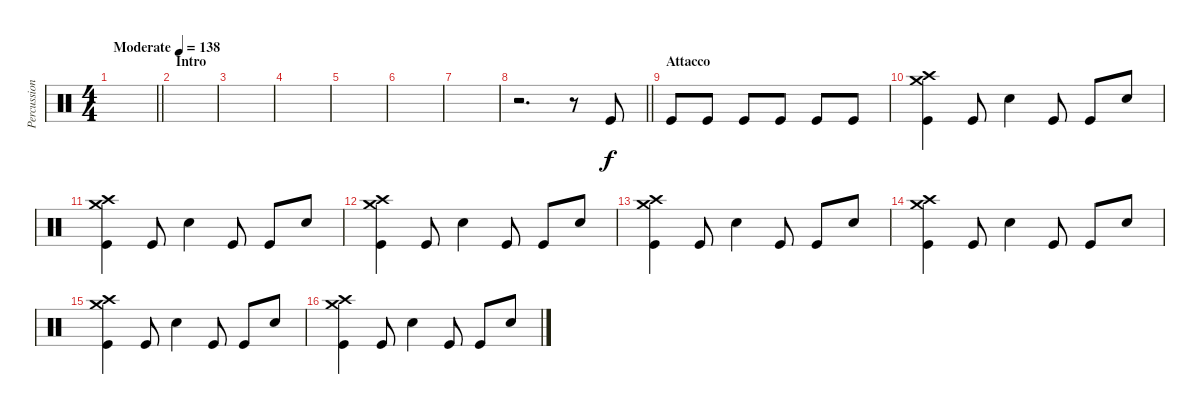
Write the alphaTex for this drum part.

\track ("Percussioni" "Percussion") {instrument percussion}
\staff {score}
\articulation defaults
\ts (4 4)
\tempo (138 "Moderate")
\clef neutral
\barLineRight lightlight
\ks c
|
\section ("" "Intro")
|
|
|
|
|
|
\barLineRight lightlight
r.2{d} r.8 "Kick (hit)".8 |
\section ("" "Attacco")
"Kick (hit)".8{dy f} "Kick (hit)".8 "Kick (hit)".8 "Kick (hit)".8 "Kick (hit)".8 "Kick (hit)".8 |
("Crash medium (hit)" "Crash high (hit)" "Kick (hit)").4 "Kick (hit)".8 "Electric Snare (hit)".4 "Kick (hit)".8 "Kick (hit)".8 "Electric Snare (hit)".8 |
("Crash medium (hit)" "Crash high (hit)" "Kick (hit)").4 "Kick (hit)".8 "Electric Snare (hit)".4 "Kick (hit)".8 "Kick (hit)".8 "Electric Snare (hit)".8 |
("Crash medium (hit)" "Crash high (hit)" "Kick (hit)").4 "Kick (hit)".8 "Electric Snare (hit)".4 "Kick (hit)".8 "Kick (hit)".8 "Electric Snare (hit)".8 |
("Crash medium (hit)" "Crash high (hit)" "Kick (hit)").4 "Kick (hit)".8 "Electric Snare (hit)".4 "Kick (hit)".8 "Kick (hit)".8 "Electric Snare (hit)".8 |
("Crash medium (hit)" "Crash high (hit)" "Kick (hit)").4 "Kick (hit)".8 "Electric Snare (hit)".4 "Kick (hit)".8 "Kick (hit)".8 "Electric Snare (hit)".8 |
("Crash medium (hit)" "Crash high (hit)" "Kick (hit)").4 "Kick (hit)".8 "Electric Snare (hit)".4 "Kick (hit)".8 "Kick (hit)".8 "Electric Snare (hit)".8 |
("Crash medium (hit)" "Crash high (hit)" "Kick (hit)").4 "Kick (hit)".8 "Electric Snare (hit)".4 "Kick (hit)".8 "Kick (hit)".8 "Electric Snare (hit)".8
